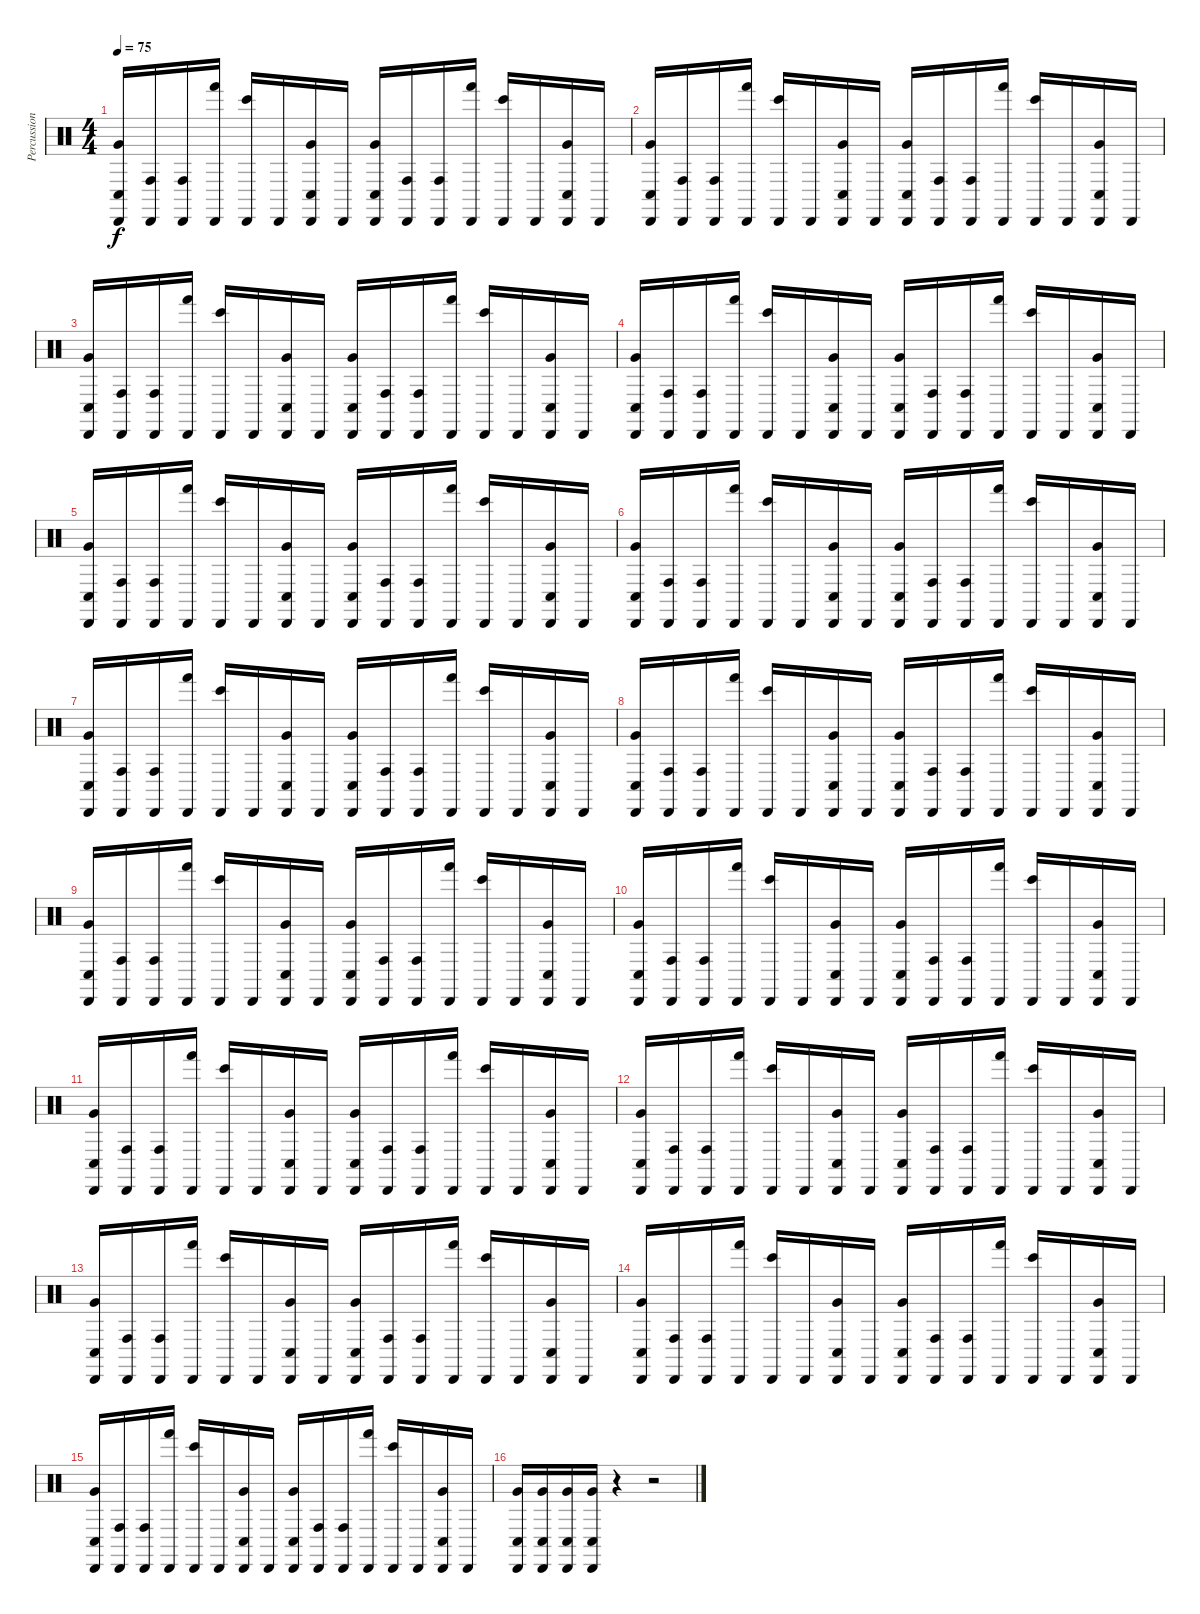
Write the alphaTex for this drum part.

\track ("Percussions" "Percussion") {instrument percussion}
\staff {score}
\articulation defaults
\ts (4 4)
\tempo 75
\clef neutral
\ks c
("Conga low (hit)" "Very Low Tom (hit)" "Cabasa (hit)").16{dy f} ("Conga high (hit)" "Cabasa (hit)").16 ("Conga high (hit)" "Cabasa (hit)").16 ("Hand (hit)" "Cabasa (hit)").16 ("Bongo High (hit)" "Cabasa (hit)").16 "Cabasa (hit)".16 ("Conga low (hit)" "Very Low Tom (hit)" "Cabasa (hit)").16 "Cabasa (hit)".16 ("Conga low (hit)" "Very Low Tom (hit)" "Cabasa (hit)").16 ("Conga high (hit)" "Cabasa (hit)").16 ("Conga high (hit)" "Cabasa (hit)").16 ("Hand (hit)" "Cabasa (hit)").16 ("Bongo High (hit)" "Cabasa (hit)").16 "Cabasa (hit)".16 ("Conga low (hit)" "Very Low Tom (hit)" "Cabasa (hit)").16 "Cabasa (hit)".16 |
("Conga low (hit)" "Very Low Tom (hit)" "Cabasa (hit)").16 ("Conga high (hit)" "Cabasa (hit)").16 ("Conga high (hit)" "Cabasa (hit)").16 ("Hand (hit)" "Cabasa (hit)").16 ("Bongo High (hit)" "Cabasa (hit)").16 "Cabasa (hit)".16 ("Conga low (hit)" "Very Low Tom (hit)" "Cabasa (hit)").16 "Cabasa (hit)".16 ("Conga low (hit)" "Very Low Tom (hit)" "Cabasa (hit)").16 ("Conga high (hit)" "Cabasa (hit)").16 ("Conga high (hit)" "Cabasa (hit)").16 ("Hand (hit)" "Cabasa (hit)").16 ("Bongo High (hit)" "Cabasa (hit)").16 "Cabasa (hit)".16 ("Conga low (hit)" "Very Low Tom (hit)" "Cabasa (hit)").16 "Cabasa (hit)".16 |
("Conga low (hit)" "Very Low Tom (hit)" "Cabasa (hit)").16 ("Conga high (hit)" "Cabasa (hit)").16 ("Conga high (hit)" "Cabasa (hit)").16 ("Hand (hit)" "Cabasa (hit)").16 ("Bongo High (hit)" "Cabasa (hit)").16 "Cabasa (hit)".16 ("Conga low (hit)" "Very Low Tom (hit)" "Cabasa (hit)").16 "Cabasa (hit)".16 ("Conga low (hit)" "Very Low Tom (hit)" "Cabasa (hit)").16 ("Conga high (hit)" "Cabasa (hit)").16 ("Conga high (hit)" "Cabasa (hit)").16 ("Hand (hit)" "Cabasa (hit)").16 ("Bongo High (hit)" "Cabasa (hit)").16 "Cabasa (hit)".16 ("Conga low (hit)" "Very Low Tom (hit)" "Cabasa (hit)").16 "Cabasa (hit)".16 |
("Conga low (hit)" "Very Low Tom (hit)" "Cabasa (hit)").16 ("Conga high (hit)" "Cabasa (hit)").16 ("Conga high (hit)" "Cabasa (hit)").16 ("Hand (hit)" "Cabasa (hit)").16 ("Bongo High (hit)" "Cabasa (hit)").16 "Cabasa (hit)".16 ("Conga low (hit)" "Very Low Tom (hit)" "Cabasa (hit)").16 "Cabasa (hit)".16 ("Conga low (hit)" "Very Low Tom (hit)" "Cabasa (hit)").16 ("Conga high (hit)" "Cabasa (hit)").16 ("Conga high (hit)" "Cabasa (hit)").16 ("Hand (hit)" "Cabasa (hit)").16 ("Bongo High (hit)" "Cabasa (hit)").16 "Cabasa (hit)".16 ("Conga low (hit)" "Very Low Tom (hit)" "Cabasa (hit)").16 "Cabasa (hit)".16 |
("Conga low (hit)" "Very Low Tom (hit)" "Cabasa (hit)").16 ("Conga high (hit)" "Cabasa (hit)").16 ("Conga high (hit)" "Cabasa (hit)").16 ("Hand (hit)" "Cabasa (hit)").16 ("Bongo High (hit)" "Cabasa (hit)").16 "Cabasa (hit)".16 ("Conga low (hit)" "Very Low Tom (hit)" "Cabasa (hit)").16 "Cabasa (hit)".16 ("Conga low (hit)" "Very Low Tom (hit)" "Cabasa (hit)").16 ("Conga high (hit)" "Cabasa (hit)").16 ("Conga high (hit)" "Cabasa (hit)").16 ("Hand (hit)" "Cabasa (hit)").16 ("Bongo High (hit)" "Cabasa (hit)").16 "Cabasa (hit)".16 ("Conga low (hit)" "Very Low Tom (hit)" "Cabasa (hit)").16 "Cabasa (hit)".16 |
("Conga low (hit)" "Very Low Tom (hit)" "Cabasa (hit)").16 ("Conga high (hit)" "Cabasa (hit)").16 ("Conga high (hit)" "Cabasa (hit)").16 ("Hand (hit)" "Cabasa (hit)").16 ("Bongo High (hit)" "Cabasa (hit)").16 "Cabasa (hit)".16 ("Conga low (hit)" "Very Low Tom (hit)" "Cabasa (hit)").16 "Cabasa (hit)".16 ("Conga low (hit)" "Very Low Tom (hit)" "Cabasa (hit)").16 ("Conga high (hit)" "Cabasa (hit)").16 ("Conga high (hit)" "Cabasa (hit)").16 ("Hand (hit)" "Cabasa (hit)").16 ("Bongo High (hit)" "Cabasa (hit)").16 "Cabasa (hit)".16 ("Conga low (hit)" "Very Low Tom (hit)" "Cabasa (hit)").16 "Cabasa (hit)".16 |
("Conga low (hit)" "Very Low Tom (hit)" "Cabasa (hit)").16 ("Conga high (hit)" "Cabasa (hit)").16 ("Conga high (hit)" "Cabasa (hit)").16 ("Hand (hit)" "Cabasa (hit)").16 ("Bongo High (hit)" "Cabasa (hit)").16 "Cabasa (hit)".16 ("Conga low (hit)" "Very Low Tom (hit)" "Cabasa (hit)").16 "Cabasa (hit)".16 ("Conga low (hit)" "Very Low Tom (hit)" "Cabasa (hit)").16 ("Conga high (hit)" "Cabasa (hit)").16 ("Conga high (hit)" "Cabasa (hit)").16 ("Hand (hit)" "Cabasa (hit)").16 ("Bongo High (hit)" "Cabasa (hit)").16 "Cabasa (hit)".16 ("Conga low (hit)" "Very Low Tom (hit)" "Cabasa (hit)").16 "Cabasa (hit)".16 |
("Conga low (hit)" "Very Low Tom (hit)" "Cabasa (hit)").16 ("Conga high (hit)" "Cabasa (hit)").16 ("Conga high (hit)" "Cabasa (hit)").16 ("Hand (hit)" "Cabasa (hit)").16 ("Bongo High (hit)" "Cabasa (hit)").16 "Cabasa (hit)".16 ("Conga low (hit)" "Very Low Tom (hit)" "Cabasa (hit)").16 "Cabasa (hit)".16 ("Conga low (hit)" "Very Low Tom (hit)" "Cabasa (hit)").16 ("Conga high (hit)" "Cabasa (hit)").16 ("Conga high (hit)" "Cabasa (hit)").16 ("Hand (hit)" "Cabasa (hit)").16 ("Bongo High (hit)" "Cabasa (hit)").16 "Cabasa (hit)".16 ("Conga low (hit)" "Very Low Tom (hit)" "Cabasa (hit)").16 "Cabasa (hit)".16 |
("Conga low (hit)" "Very Low Tom (hit)" "Cabasa (hit)").16 ("Conga high (hit)" "Cabasa (hit)").16 ("Conga high (hit)" "Cabasa (hit)").16 ("Hand (hit)" "Cabasa (hit)").16 ("Bongo High (hit)" "Cabasa (hit)").16 "Cabasa (hit)".16 ("Conga low (hit)" "Very Low Tom (hit)" "Cabasa (hit)").16 "Cabasa (hit)".16 ("Conga low (hit)" "Very Low Tom (hit)" "Cabasa (hit)").16 ("Conga high (hit)" "Cabasa (hit)").16 ("Conga high (hit)" "Cabasa (hit)").16 ("Hand (hit)" "Cabasa (hit)").16 ("Bongo High (hit)" "Cabasa (hit)").16 "Cabasa (hit)".16 ("Conga low (hit)" "Very Low Tom (hit)" "Cabasa (hit)").16 "Cabasa (hit)".16 |
("Conga low (hit)" "Very Low Tom (hit)" "Cabasa (hit)").16 ("Conga high (hit)" "Cabasa (hit)").16 ("Conga high (hit)" "Cabasa (hit)").16 ("Hand (hit)" "Cabasa (hit)").16 ("Bongo High (hit)" "Cabasa (hit)").16 "Cabasa (hit)".16 ("Conga low (hit)" "Very Low Tom (hit)" "Cabasa (hit)").16 "Cabasa (hit)".16 ("Conga low (hit)" "Very Low Tom (hit)" "Cabasa (hit)").16 ("Conga high (hit)" "Cabasa (hit)").16 ("Conga high (hit)" "Cabasa (hit)").16 ("Hand (hit)" "Cabasa (hit)").16 ("Bongo High (hit)" "Cabasa (hit)").16 "Cabasa (hit)".16 ("Conga low (hit)" "Very Low Tom (hit)" "Cabasa (hit)").16 "Cabasa (hit)".16 |
("Conga low (hit)" "Very Low Tom (hit)" "Cabasa (hit)").16 ("Conga high (hit)" "Cabasa (hit)").16 ("Conga high (hit)" "Cabasa (hit)").16 ("Hand (hit)" "Cabasa (hit)").16 ("Bongo High (hit)" "Cabasa (hit)").16 "Cabasa (hit)".16 ("Conga low (hit)" "Very Low Tom (hit)" "Cabasa (hit)").16 "Cabasa (hit)".16 ("Conga low (hit)" "Very Low Tom (hit)" "Cabasa (hit)").16 ("Conga high (hit)" "Cabasa (hit)").16 ("Conga high (hit)" "Cabasa (hit)").16 ("Hand (hit)" "Cabasa (hit)").16 ("Bongo High (hit)" "Cabasa (hit)").16 "Cabasa (hit)".16 ("Conga low (hit)" "Very Low Tom (hit)" "Cabasa (hit)").16 "Cabasa (hit)".16 |
("Conga low (hit)" "Very Low Tom (hit)" "Cabasa (hit)").16 ("Conga high (hit)" "Cabasa (hit)").16 ("Conga high (hit)" "Cabasa (hit)").16 ("Hand (hit)" "Cabasa (hit)").16 ("Bongo High (hit)" "Cabasa (hit)").16 "Cabasa (hit)".16 ("Conga low (hit)" "Very Low Tom (hit)" "Cabasa (hit)").16 "Cabasa (hit)".16 ("Conga low (hit)" "Very Low Tom (hit)" "Cabasa (hit)").16 ("Conga high (hit)" "Cabasa (hit)").16 ("Conga high (hit)" "Cabasa (hit)").16 ("Hand (hit)" "Cabasa (hit)").16 ("Bongo High (hit)" "Cabasa (hit)").16 "Cabasa (hit)".16 ("Conga low (hit)" "Very Low Tom (hit)" "Cabasa (hit)").16 "Cabasa (hit)".16 |
("Conga low (hit)" "Very Low Tom (hit)" "Cabasa (hit)").16 ("Conga high (hit)" "Cabasa (hit)").16 ("Conga high (hit)" "Cabasa (hit)").16 ("Hand (hit)" "Cabasa (hit)").16 ("Bongo High (hit)" "Cabasa (hit)").16 "Cabasa (hit)".16 ("Conga low (hit)" "Very Low Tom (hit)" "Cabasa (hit)").16 "Cabasa (hit)".16 ("Conga low (hit)" "Very Low Tom (hit)" "Cabasa (hit)").16 ("Conga high (hit)" "Cabasa (hit)").16 ("Conga high (hit)" "Cabasa (hit)").16 ("Hand (hit)" "Cabasa (hit)").16 ("Bongo High (hit)" "Cabasa (hit)").16 "Cabasa (hit)".16 ("Conga low (hit)" "Very Low Tom (hit)" "Cabasa (hit)").16 "Cabasa (hit)".16 |
("Conga low (hit)" "Very Low Tom (hit)" "Cabasa (hit)").16 ("Conga high (hit)" "Cabasa (hit)").16 ("Conga high (hit)" "Cabasa (hit)").16 ("Hand (hit)" "Cabasa (hit)").16 ("Bongo High (hit)" "Cabasa (hit)").16 "Cabasa (hit)".16 ("Conga low (hit)" "Very Low Tom (hit)" "Cabasa (hit)").16 "Cabasa (hit)".16 ("Conga low (hit)" "Very Low Tom (hit)" "Cabasa (hit)").16 ("Conga high (hit)" "Cabasa (hit)").16 ("Conga high (hit)" "Cabasa (hit)").16 ("Hand (hit)" "Cabasa (hit)").16 ("Bongo High (hit)" "Cabasa (hit)").16 "Cabasa (hit)".16 ("Conga low (hit)" "Very Low Tom (hit)" "Cabasa (hit)").16 "Cabasa (hit)".16 |
("Conga low (hit)" "Very Low Tom (hit)" "Cabasa (hit)").16 ("Conga high (hit)" "Cabasa (hit)").16 ("Conga high (hit)" "Cabasa (hit)").16 ("Hand (hit)" "Cabasa (hit)").16 ("Bongo High (hit)" "Cabasa (hit)").16 "Cabasa (hit)".16 ("Conga low (hit)" "Very Low Tom (hit)" "Cabasa (hit)").16 "Cabasa (hit)".16 ("Conga low (hit)" "Very Low Tom (hit)" "Cabasa (hit)").16 ("Conga high (hit)" "Cabasa (hit)").16 ("Conga high (hit)" "Cabasa (hit)").16 ("Hand (hit)" "Cabasa (hit)").16 ("Bongo High (hit)" "Cabasa (hit)").16 "Cabasa (hit)".16 ("Conga low (hit)" "Very Low Tom (hit)" "Cabasa (hit)").16 "Cabasa (hit)".16 |
("Conga low (hit)" "Very Low Tom (hit)" "Cabasa (hit)").16 ("Conga low (hit)" "Very Low Tom (hit)" "Cabasa (hit)").16 ("Conga low (hit)" "Very Low Tom (hit)" "Cabasa (hit)").16 ("Conga low (hit)" "Very Low Tom (hit)" "Cabasa (hit)").16 r.4 r.2
